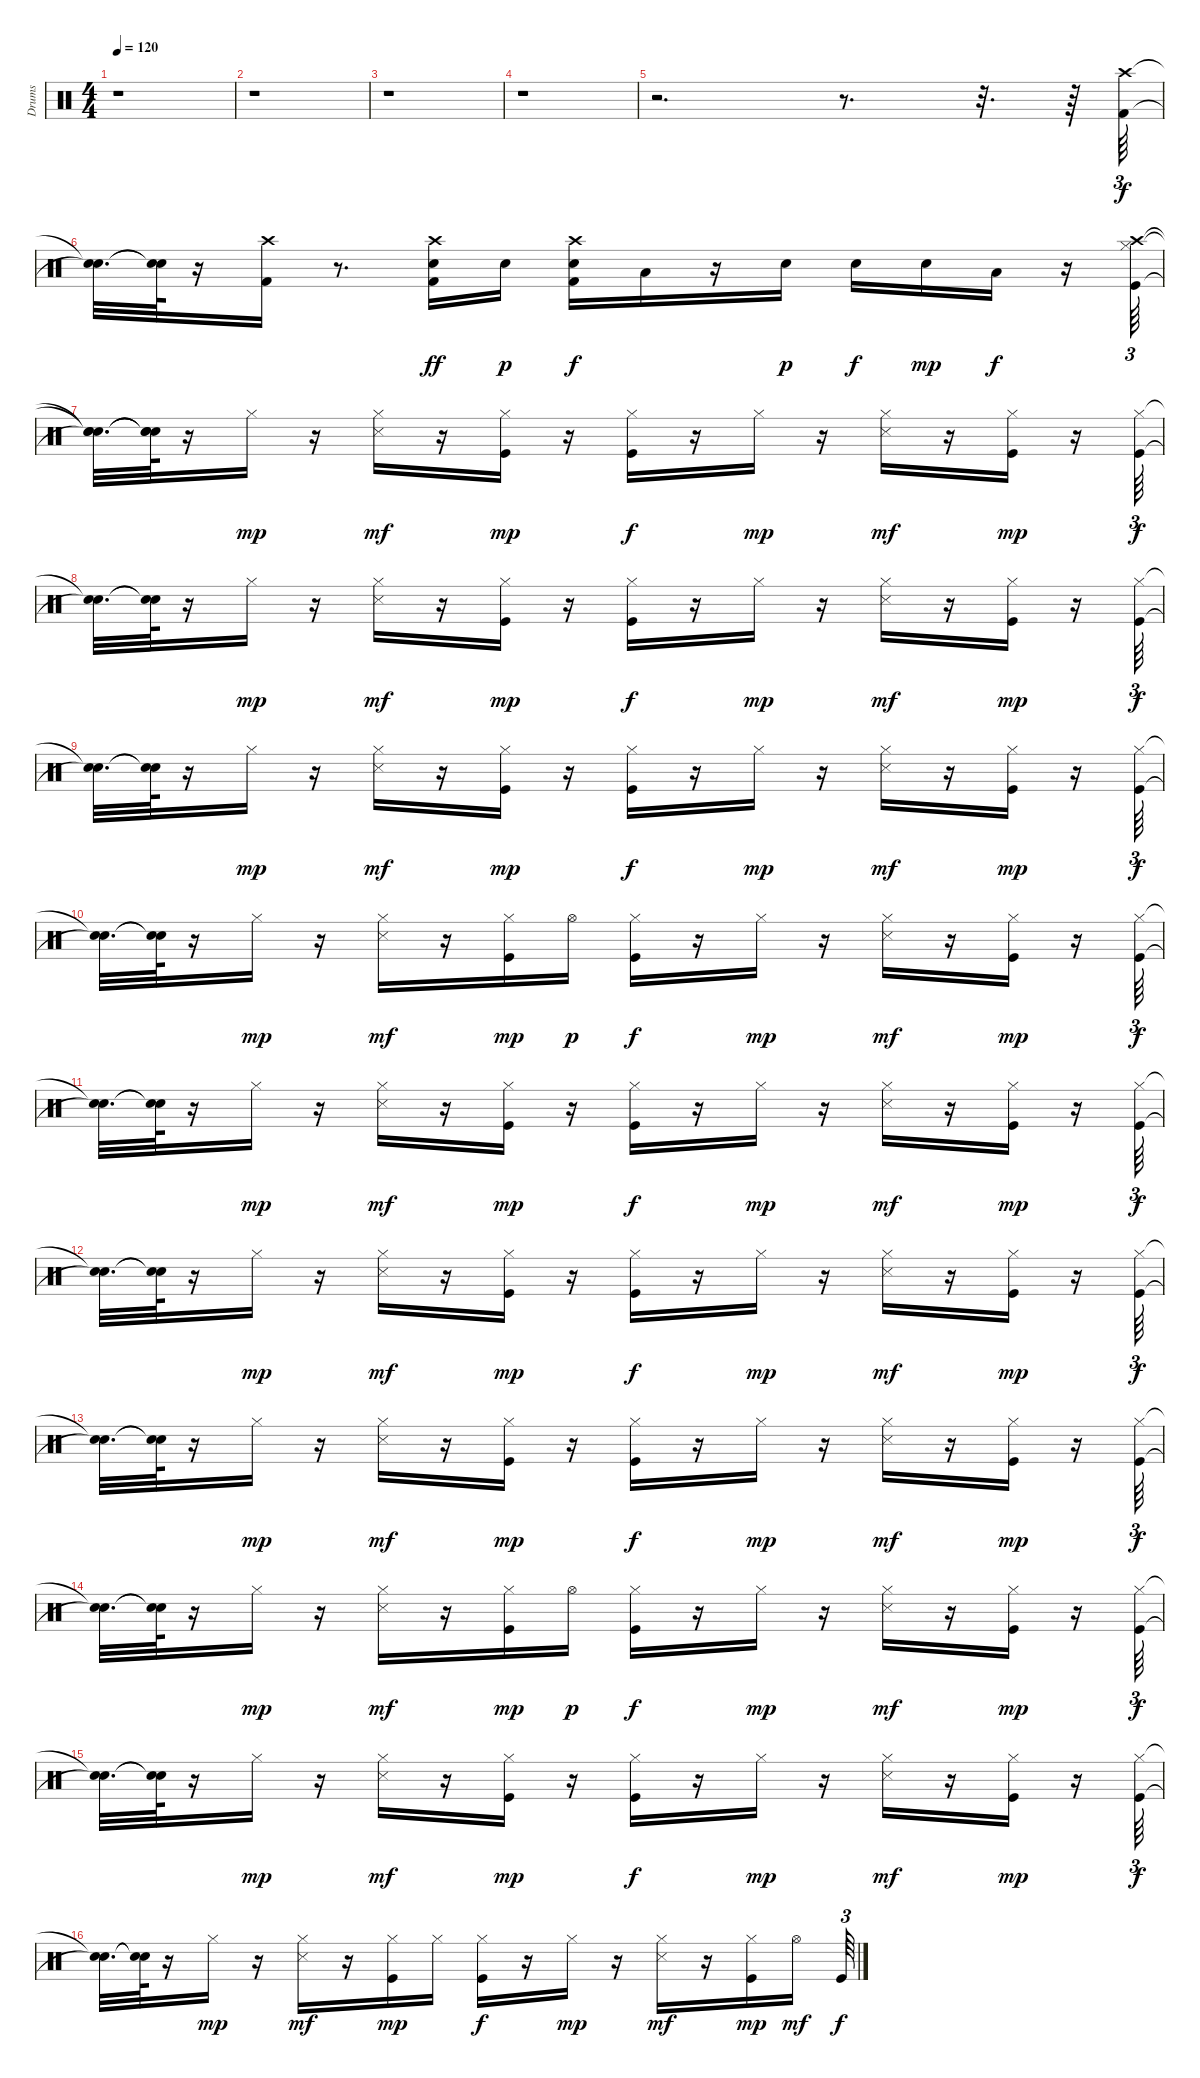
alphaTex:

\track ("Drums" "Drums") {instrument percussion}
\staff {score}
\articulation defaults
\ts (4 4)
\tempo 120
\clef neutral
\ks c
r.1{dy f} |
r.1 |
r.1 |
r.1 |
r.2{d} r.8{d} r.32{d} r.64 ("Crash high (hit)" "Kick (hit) 2").64{tu (3 2)} |
("Snare (hit)"{t} "Snare (hit)"{t}).32{d} ("Snare (hit)"{t} "Snare (hit)"{t}).64 r.16 ("Kick (hit) 2" "Crash high (hit)").16 r.8{d} ("Snare (hit) 2" "Kick (hit) 2" "Crash high (hit)").16{dy ff} "Snare (hit) 2".16{dy p} ("Kick (hit) 2" "Crash high (hit)" "Snare (hit) 2").16{dy f} "Low Tom (hit)".16 r.16 "Snare (hit) 2".16{dy p} "Snare (hit) 2".16{dy f} "Snare (hit) 2".16{dy mp} "Low Floor Tom (hit)".16{dy f} r.16 ("Kick (hit)" "Hi-Hat (closed)" "Crash high (hit)").64{tu (3 2)} |
("Snare (hit)"{t} "Snare (hit)"{t} "Snare (hit)"{t}).32{d} ("Snare (hit)"{t} "Snare (hit)"{t} "Snare (hit)"{t}).64 r.16 "Hi-Hat (closed)".16{dy mp} r.16 ("Hi-Hat (closed)" "Snare (side stick) 3").16{dy mf} r.16 ("Kick (hit)" "Hi-Hat (closed)").16{dy mp} r.16 ("Kick (hit)" "Hi-Hat (closed)").16{dy f} r.16 "Hi-Hat (closed)".16{dy mp} r.16 ("Hi-Hat (closed)" "Snare (side stick) 3").16{dy mf} r.16 ("Kick (hit)" "Hi-Hat (closed)").16{dy mp} r.16 ("Kick (hit)" "Hi-Hat (closed)").64{tu (3 2) dy f} |
("Snare (hit)"{t} "Snare (hit)"{t}).32{d} ("Snare (hit)"{t} "Snare (hit)"{t}).64 r.16 "Hi-Hat (closed)".16{dy mp} r.16 ("Hi-Hat (closed)" "Snare (side stick) 3").16{dy mf} r.16 ("Kick (hit)" "Hi-Hat (closed)").16{dy mp} r.16 ("Kick (hit)" "Hi-Hat (closed)").16{dy f} r.16 "Hi-Hat (closed)".16{dy mp} r.16 ("Hi-Hat (closed)" "Snare (side stick) 3").16{dy mf} r.16 ("Kick (hit)" "Hi-Hat (closed)").16{dy mp} r.16 ("Kick (hit)" "Hi-Hat (closed)").64{tu (3 2) dy f} |
("Snare (hit)"{t} "Snare (hit)"{t}).32{d} ("Snare (hit)"{t} "Snare (hit)"{t}).64 r.16 "Hi-Hat (closed)".16{dy mp} r.16 ("Hi-Hat (closed)" "Snare (side stick) 3").16{dy mf} r.16 ("Kick (hit)" "Hi-Hat (closed)").16{dy mp} r.16 ("Kick (hit)" "Hi-Hat (closed)").16{dy f} r.16 "Hi-Hat (closed)".16{dy mp} r.16 ("Hi-Hat (closed)" "Snare (side stick) 3").16{dy mf} r.16 ("Kick (hit)" "Hi-Hat (closed)").16{dy mp} r.16 ("Kick (hit)" "Hi-Hat (closed)").64{tu (3 2) dy f} |
("Snare (hit)"{t} "Snare (hit)"{t}).32{d} ("Snare (hit)"{t} "Snare (hit)"{t}).64 r.16 "Hi-Hat (closed)".16{dy mp} r.16 ("Hi-Hat (closed)" "Snare (side stick) 3").16{dy mf} r.16 ("Kick (hit)" "Hi-Hat (closed)").16{dy mp} "Hi-Hat (open)".16{dy p} ("Kick (hit)" "Hi-Hat (closed)").16{dy f} r.16 "Hi-Hat (closed)".16{dy mp} r.16 ("Hi-Hat (closed)" "Snare (side stick) 3").16{dy mf} r.16 ("Kick (hit)" "Hi-Hat (closed)").16{dy mp} r.16 ("Kick (hit)" "Hi-Hat (closed)").64{tu (3 2) dy f} |
("Snare (hit)"{t} "Snare (hit)"{t}).32{d} ("Snare (hit)"{t} "Snare (hit)"{t}).64 r.16 "Hi-Hat (closed)".16{dy mp} r.16 ("Hi-Hat (closed)" "Snare (side stick) 3").16{dy mf} r.16 ("Kick (hit)" "Hi-Hat (closed)").16{dy mp} r.16 ("Kick (hit)" "Hi-Hat (closed)").16{dy f} r.16 "Hi-Hat (closed)".16{dy mp} r.16 ("Hi-Hat (closed)" "Snare (side stick) 3").16{dy mf} r.16 ("Kick (hit)" "Hi-Hat (closed)").16{dy mp} r.16 ("Kick (hit)" "Hi-Hat (closed)").64{tu (3 2) dy f} |
("Snare (hit)"{t} "Snare (hit)"{t}).32{d} ("Snare (hit)"{t} "Snare (hit)"{t}).64 r.16 "Hi-Hat (closed)".16{dy mp} r.16 ("Hi-Hat (closed)" "Snare (side stick) 3").16{dy mf} r.16 ("Kick (hit)" "Hi-Hat (closed)").16{dy mp} r.16 ("Kick (hit)" "Hi-Hat (closed)").16{dy f} r.16 "Hi-Hat (closed)".16{dy mp} r.16 ("Hi-Hat (closed)" "Snare (side stick) 3").16{dy mf} r.16 ("Kick (hit)" "Hi-Hat (closed)").16{dy mp} r.16 ("Kick (hit)" "Hi-Hat (closed)").64{tu (3 2) dy f} |
("Snare (hit)"{t} "Snare (hit)"{t}).32{d} ("Snare (hit)"{t} "Snare (hit)"{t}).64 r.16 "Hi-Hat (closed)".16{dy mp} r.16 ("Hi-Hat (closed)" "Snare (side stick) 3").16{dy mf} r.16 ("Kick (hit)" "Hi-Hat (closed)").16{dy mp} r.16 ("Kick (hit)" "Hi-Hat (closed)").16{dy f} r.16 "Hi-Hat (closed)".16{dy mp} r.16 ("Hi-Hat (closed)" "Snare (side stick) 3").16{dy mf} r.16 ("Kick (hit)" "Hi-Hat (closed)").16{dy mp} r.16 ("Kick (hit)" "Hi-Hat (closed)").64{tu (3 2) dy f} |
("Snare (hit)"{t} "Snare (hit)"{t}).32{d} ("Snare (hit)"{t} "Snare (hit)"{t}).64 r.16 "Hi-Hat (closed)".16{dy mp} r.16 ("Hi-Hat (closed)" "Snare (side stick) 3").16{dy mf} r.16 ("Kick (hit)" "Hi-Hat (closed)").16{dy mp} "Hi-Hat (open)".16{dy p} ("Kick (hit)" "Hi-Hat (closed)").16{dy f} r.16 "Hi-Hat (closed)".16{dy mp} r.16 ("Hi-Hat (closed)" "Snare (side stick) 3").16{dy mf} r.16 ("Kick (hit)" "Hi-Hat (closed)").16{dy mp} r.16 ("Kick (hit)" "Hi-Hat (closed)").64{tu (3 2) dy f} |
("Snare (hit)"{t} "Snare (hit)"{t}).32{d} ("Snare (hit)"{t} "Snare (hit)"{t}).64 r.16 "Hi-Hat (closed)".16{dy mp} r.16 ("Hi-Hat (closed)" "Snare (side stick) 3").16{dy mf} r.16 ("Kick (hit)" "Hi-Hat (closed)").16{dy mp} r.16 ("Kick (hit)" "Hi-Hat (closed)").16{dy f} r.16 "Hi-Hat (closed)".16{dy mp} r.16 ("Hi-Hat (closed)" "Snare (side stick) 3").16{dy mf} r.16 ("Kick (hit)" "Hi-Hat (closed)").16{dy mp} r.16 ("Kick (hit)" "Hi-Hat (closed)").64{tu (3 2) dy f} |
("Snare (hit)"{t} "Snare (hit)"{t}).32{d} ("Snare (hit)"{t} "Snare (hit)"{t}).64 r.16 "Hi-Hat (closed)".16{dy mp} r.16 ("Hi-Hat (closed)" "Snare (side stick) 3").16{dy mf} r.16 ("Kick (hit)" "Hi-Hat (closed)").16{dy mp} "Hi-Hat (closed)".16 ("Kick (hit)" "Hi-Hat (closed)").16{dy f} r.16 "Hi-Hat (closed)".16{dy mp} r.16 ("Hi-Hat (closed)" "Snare (side stick) 3").16{dy mf} r.16 ("Kick (hit)" "Hi-Hat (closed)").16{dy mp} "Hi-Hat (open)".16{dy mf} "Kick (hit)".64{tu (3 2) dy f}
